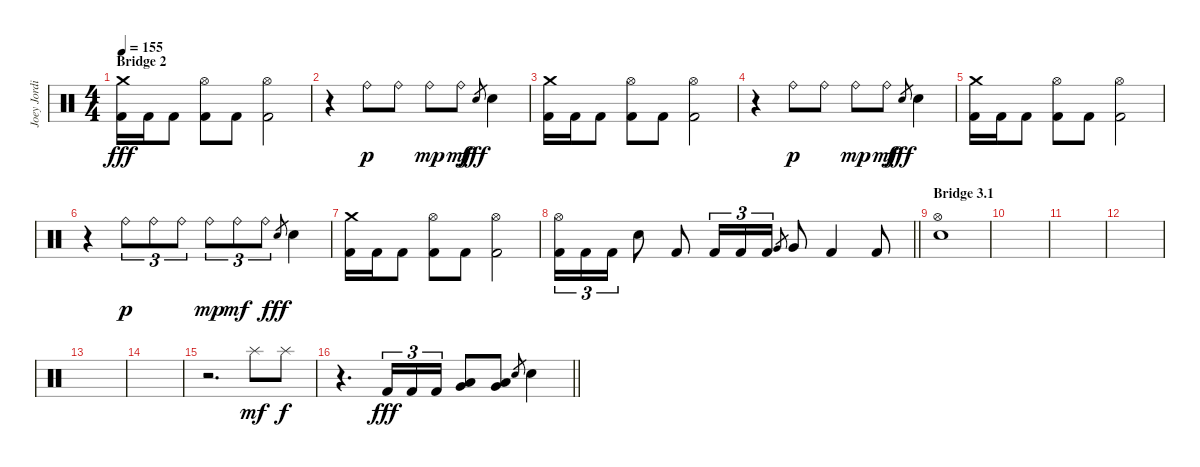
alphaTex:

\track ("Joey Jordison" "Joey Jordi") {instrument percussion}
\staff {score}
\articulation defaults
\ts (4 4)
\section ("" "Bridge 2")
\tempo 155
\clef neutral
\ks c
("Crash medium (hit)" "Kick (hit) 2").16{dy fff} "Kick (hit) 2".16 "Kick (hit) 2".8 ("Hi-Hat (open)" "Kick (hit) 2").8 "Kick (hit) 2".8 ("Hi-Hat (open)" "Kick (hit) 2").2 |
r.4 "Ride (bell)".8{dy p} "Ride (bell)".8 "Ride (bell)".8{dy mp} "Ride (bell)".8{dy mf} "Electric Snare (hit)".8{gr dy fff} "Electric Snare (hit)".4 |
("Crash medium (hit)" "Kick (hit) 2").16 "Kick (hit) 2".16 "Kick (hit) 2".8 ("Hi-Hat (open)" "Kick (hit) 2").8 "Kick (hit) 2".8 ("Hi-Hat (open)" "Kick (hit) 2").2 |
r.4 "Ride (bell)".8{dy p} "Ride (bell)".8 "Ride (bell)".8{dy mp} "Ride (bell)".8{dy mf} "Electric Snare (hit)".8{gr dy fff} "Electric Snare (hit)".4 |
("Crash medium (hit)" "Kick (hit) 2").16 "Kick (hit) 2".16 "Kick (hit) 2".8 ("Hi-Hat (open)" "Kick (hit) 2").8 "Kick (hit) 2".8 ("Hi-Hat (open)" "Kick (hit) 2").2 |
r.4 "Ride (bell)".8{tu (3 2) dy p} "Ride (bell)".8{tu (3 2)} "Ride (bell)".8{tu (3 2)} "Ride (bell)".8{tu (3 2) dy mp} "Ride (bell)".8{tu (3 2) dy mf} "Ride (bell)".8{tu (3 2)} "Electric Snare (hit)".8{gr dy fff} "Electric Snare (hit)".4 |
("Crash medium (hit)" "Kick (hit) 2").16 "Kick (hit) 2".16 "Kick (hit) 2".8 ("Hi-Hat (open)" "Kick (hit) 2").8 "Kick (hit) 2".8 ("Hi-Hat (open)" "Kick (hit) 2").2 |
\barLineRight lightlight
("Hi-Hat (open)" "Kick (hit) 2").16{tu (3 2)} "Kick (hit) 2".16{tu (3 2)} "Kick (hit) 2".16{tu (3 2)} "Electric Snare (hit)".8 "Kick (hit) 2".8 "Kick (hit) 2".16{tu (3 2)} "Kick (hit) 2".16{tu (3 2)} "Kick (hit) 2".16{tu (3 2)} "Very Low Tom (hit)".8{gr} "Very Low Tom (hit)".8 "Kick (hit) 2".4 "Kick (hit) 2".8 |
\section ("" "Bridge 3.1")
("Hi-Hat (open)" "Electric Snare (hit)").1 |
|
|
|
|
|
r.2{d} "Splash (hit)".8{dy mf} "Splash (hit)".8{dy f} |
\barLineRight lightlight
r.4{d} "Kick (hit) 2".16{tu (3 2) dy fff} "Kick (hit) 2".16{tu (3 2)} "Kick (hit) 2".16{tu (3 2)} ("Very Low Tom (hit)" "Low Floor Tom (hit)").8 ("Very Low Tom (hit)" "Low Floor Tom (hit)").8 "Electric Snare (hit)".8{gr} "Electric Snare (hit)".4
